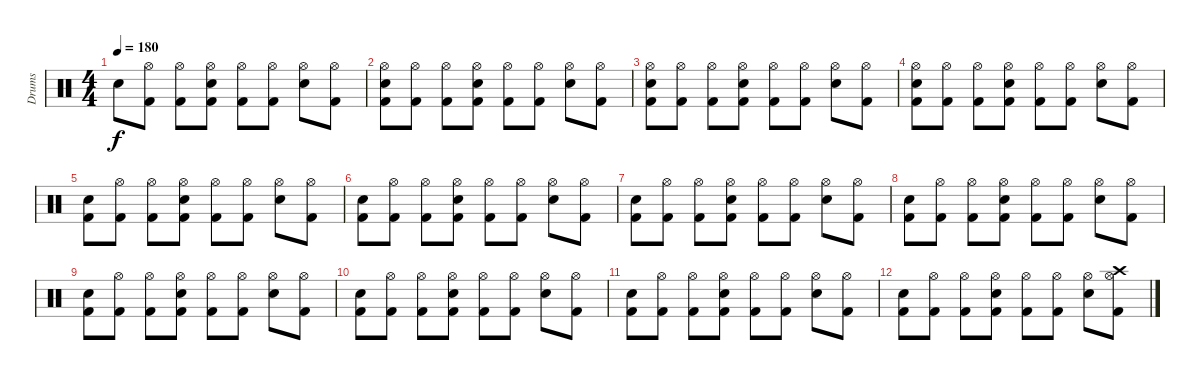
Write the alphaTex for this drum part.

\track ("Drums" "Drums") {instrument percussion}
\staff {score}
\articulation defaults
\ts (4 4)
\tempo 180
\clef neutral
\ks c "Electric Snare (hit)".8{dy f}
("Kick (hit) 2" "Hi-Hat (open)").8 ("Kick (hit) 2" "Hi-Hat (open)").8 ("Kick (hit) 2" "Electric Snare (hit)" "Hi-Hat (open)").8 ("Kick (hit) 2" "Hi-Hat (open)").8 ("Kick (hit) 2" "Hi-Hat (open)").8 ("Electric Snare (hit)" "Hi-Hat (open)").8 ("Kick (hit) 2" "Hi-Hat (open)").8 |
("Kick (hit) 2" "Electric Snare (hit)" "Hi-Hat (open)").8 ("Kick (hit) 2" "Hi-Hat (open)").8 ("Kick (hit) 2" "Hi-Hat (open)").8 ("Kick (hit) 2" "Electric Snare (hit)" "Hi-Hat (open)").8 ("Kick (hit) 2" "Hi-Hat (open)").8 ("Kick (hit) 2" "Hi-Hat (open)").8 ("Electric Snare (hit)" "Hi-Hat (open)").8 ("Kick (hit) 2" "Hi-Hat (open)").8 |
("Kick (hit) 2" "Electric Snare (hit)" "Hi-Hat (open)").8 ("Kick (hit) 2" "Hi-Hat (open)").8 ("Kick (hit) 2" "Hi-Hat (open)").8 ("Kick (hit) 2" "Electric Snare (hit)" "Hi-Hat (open)").8 ("Kick (hit) 2" "Hi-Hat (open)").8 ("Kick (hit) 2" "Hi-Hat (open)").8 ("Electric Snare (hit)" "Hi-Hat (open)").8 ("Kick (hit) 2" "Hi-Hat (open)").8 |
("Kick (hit) 2" "Electric Snare (hit)" "Hi-Hat (open)").8 ("Kick (hit) 2" "Hi-Hat (open)").8 ("Kick (hit) 2" "Hi-Hat (open)").8 ("Kick (hit) 2" "Electric Snare (hit)" "Hi-Hat (open)").8 ("Kick (hit) 2" "Hi-Hat (open)").8 ("Kick (hit) 2" "Hi-Hat (open)").8 ("Electric Snare (hit)" "Hi-Hat (open)").8 ("Kick (hit) 2" "Hi-Hat (open)").8 |
("Kick (hit) 2" "Electric Snare (hit)").8 ("Kick (hit) 2" "Hi-Hat (open)").8 ("Kick (hit) 2" "Hi-Hat (open)").8 ("Kick (hit) 2" "Electric Snare (hit)" "Hi-Hat (open)").8 ("Kick (hit) 2" "Hi-Hat (open)").8 ("Kick (hit) 2" "Hi-Hat (open)").8 ("Electric Snare (hit)" "Hi-Hat (open)").8 ("Kick (hit) 2" "Hi-Hat (open)").8 |
("Kick (hit) 2" "Electric Snare (hit)").8 ("Kick (hit) 2" "Hi-Hat (open)").8 ("Kick (hit) 2" "Hi-Hat (open)").8 ("Kick (hit) 2" "Electric Snare (hit)" "Hi-Hat (open)").8 ("Kick (hit) 2" "Hi-Hat (open)").8 ("Kick (hit) 2" "Hi-Hat (open)").8 ("Electric Snare (hit)" "Hi-Hat (open)").8 ("Kick (hit) 2" "Hi-Hat (open)").8 |
("Kick (hit) 2" "Electric Snare (hit)").8 ("Kick (hit) 2" "Hi-Hat (open)").8 ("Kick (hit) 2" "Hi-Hat (open)").8 ("Kick (hit) 2" "Electric Snare (hit)" "Hi-Hat (open)").8 ("Kick (hit) 2" "Hi-Hat (open)").8 ("Kick (hit) 2" "Hi-Hat (open)").8 ("Electric Snare (hit)" "Hi-Hat (open)").8 ("Kick (hit) 2" "Hi-Hat (open)").8 |
("Kick (hit) 2" "Electric Snare (hit)").8 ("Kick (hit) 2" "Hi-Hat (open)").8 ("Kick (hit) 2" "Hi-Hat (open)").8 ("Kick (hit) 2" "Electric Snare (hit)" "Hi-Hat (open)").8 ("Kick (hit) 2" "Hi-Hat (open)").8 ("Kick (hit) 2" "Hi-Hat (open)").8 ("Electric Snare (hit)" "Hi-Hat (open)").8 ("Kick (hit) 2" "Hi-Hat (open)").8 |
("Kick (hit) 2" "Electric Snare (hit)").8 ("Kick (hit) 2" "Hi-Hat (open)").8 ("Kick (hit) 2" "Hi-Hat (open)").8 ("Kick (hit) 2" "Electric Snare (hit)" "Hi-Hat (open)").8 ("Kick (hit) 2" "Hi-Hat (open)").8 ("Kick (hit) 2" "Hi-Hat (open)").8 ("Electric Snare (hit)" "Hi-Hat (open)").8 ("Kick (hit) 2" "Hi-Hat (open)").8 |
("Kick (hit) 2" "Electric Snare (hit)").8 ("Kick (hit) 2" "Hi-Hat (open)").8 ("Kick (hit) 2" "Hi-Hat (open)").8 ("Kick (hit) 2" "Electric Snare (hit)" "Hi-Hat (open)").8 ("Kick (hit) 2" "Hi-Hat (open)").8 ("Kick (hit) 2" "Hi-Hat (open)").8 ("Electric Snare (hit)" "Hi-Hat (open)").8 ("Kick (hit) 2" "Hi-Hat (open)").8 |
("Kick (hit) 2" "Electric Snare (hit)").8 ("Kick (hit) 2" "Hi-Hat (open)").8 ("Kick (hit) 2" "Hi-Hat (open)").8 ("Kick (hit) 2" "Electric Snare (hit)" "Hi-Hat (open)").8 ("Kick (hit) 2" "Hi-Hat (open)").8 ("Kick (hit) 2" "Hi-Hat (open)").8 ("Electric Snare (hit)" "Hi-Hat (open)").8 ("Kick (hit) 2" "Hi-Hat (open)").8 |
("Kick (hit) 2" "Electric Snare (hit)").8 ("Kick (hit) 2" "Hi-Hat (open)").8 ("Kick (hit) 2" "Hi-Hat (open)").8 ("Kick (hit) 2" "Electric Snare (hit)" "Hi-Hat (open)").8 ("Kick (hit) 2" "Hi-Hat (open)").8 ("Kick (hit) 2" "Hi-Hat (open)").8 ("Electric Snare (hit)" "Hi-Hat (open)").8 ("Kick (hit) 2" "Hi-Hat (open)" "Crash high (hit)").8
